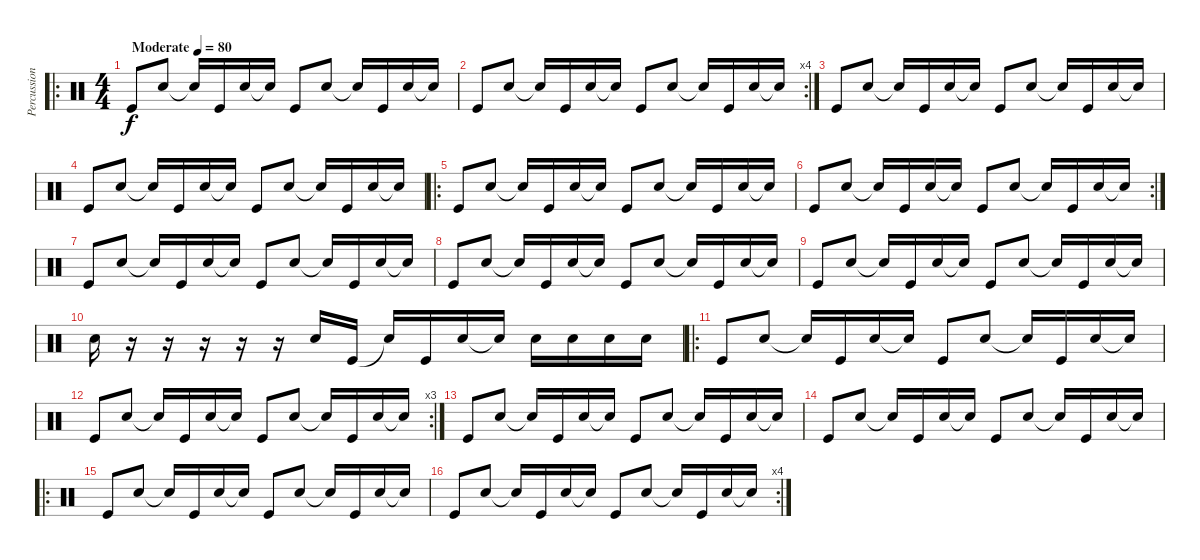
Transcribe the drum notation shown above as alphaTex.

\track ("Percussion" "Percussion") {instrument percussion}
\staff {score}
\articulation defaults
\ro
\ts (4 4)
\tempo (80 "Moderate")
\clef neutral
\ks c "Kick (hit)".8{dy f} "Snare (hit) 2".8 "Snare (hit)"{t}.16 "Kick (hit)".16 "Snare (hit) 2".16 "Snare (hit)"{t}.16 "Kick (hit)".8 "Snare (hit) 2".8 "Snare (hit)"{t}.16 "Kick (hit)".16 "Snare (hit) 2".16 "Snare (hit)"{t}.16
|
\rc 4 "Kick (hit)".8 "Snare (hit) 2".8 "Snare (hit)"{t}.16 "Kick (hit)".16 "Snare (hit) 2".16 "Snare (hit)"{t}.16 "Kick (hit)".8 "Snare (hit) 2".8 "Snare (hit)"{t}.16 "Kick (hit)".16 "Snare (hit) 2".16 "Snare (hit)"{t}.16
|
"Kick (hit)".8 "Snare (hit) 2".8 "Snare (hit)"{t}.16 "Kick (hit)".16 "Snare (hit) 2".16 "Snare (hit)"{t}.16 "Kick (hit)".8 "Snare (hit) 2".8 "Snare (hit)"{t}.16 "Kick (hit)".16 "Snare (hit) 2".16 "Snare (hit)"{t}.16 |
"Kick (hit)".8 "Snare (hit) 2".8 "Snare (hit)"{t}.16 "Kick (hit)".16 "Snare (hit) 2".16 "Snare (hit)"{t}.16 "Kick (hit)".8 "Snare (hit) 2".8 "Snare (hit)"{t}.16 "Kick (hit)".16 "Snare (hit) 2".16 "Snare (hit)"{t}.16 |
\ro "Kick (hit)".8 "Snare (hit) 2".8 "Snare (hit)"{t}.16 "Kick (hit)".16 "Snare (hit) 2".16 "Snare (hit)"{t}.16 "Kick (hit)".8 "Snare (hit) 2".8 "Snare (hit)"{t}.16 "Kick (hit)".16 "Snare (hit) 2".16 "Snare (hit)"{t}.16
|
\rc 2 "Kick (hit)".8 "Snare (hit) 2".8 "Snare (hit)"{t}.16 "Kick (hit)".16 "Snare (hit) 2".16 "Snare (hit)"{t}.16 "Kick (hit)".8 "Snare (hit) 2".8 "Snare (hit)"{t}.16 "Kick (hit)".16 "Snare (hit) 2".16 "Snare (hit)"{t}.16
|
"Kick (hit)".8 "Snare (hit) 2".8 "Snare (hit)"{t}.16 "Kick (hit)".16 "Snare (hit) 2".16 "Snare (hit)"{t}.16 "Kick (hit)".8 "Snare (hit) 2".8 "Snare (hit)"{t}.16 "Kick (hit)".16 "Snare (hit) 2".16 "Snare (hit)"{t}.16 |
"Kick (hit)".8 "Snare (hit) 2".8 "Snare (hit)"{t}.16 "Kick (hit)".16 "Snare (hit) 2".16 "Snare (hit)"{t}.16 "Kick (hit)".8 "Snare (hit) 2".8 "Snare (hit)"{t}.16 "Kick (hit)".16 "Snare (hit) 2".16 "Snare (hit)"{t}.16 |
"Kick (hit)".8 "Snare (hit) 2".8 "Snare (hit)"{t}.16 "Kick (hit)".16 "Snare (hit) 2".16 "Snare (hit)"{t}.16 "Kick (hit)".8 "Snare (hit) 2".8 "Snare (hit)"{t}.16 "Kick (hit)".16 "Snare (hit) 2".16 "Snare (hit)"{t}.16 |
"Snare (hit) 2".16 r.16 r.16 r.16 r.16 r.16 "Snare (hit) 2".16 "Kick (hit)".16 "Snare (hit)"{t}.16 "Kick (hit)".16 "Snare (hit) 2".16 "Snare (hit)"{t}.16 "Snare (hit) 2".16 "Snare (hit) 2".16 "Snare (hit) 2".16 "Snare (hit) 2".16 |
\ro "Kick (hit)".8 "Snare (hit) 2".8 "Snare (hit)"{t}.16 "Kick (hit)".16 "Snare (hit) 2".16 "Snare (hit)"{t}.16 "Kick (hit)".8 "Snare (hit) 2".8 "Snare (hit)"{t}.16 "Kick (hit)".16 "Snare (hit) 2".16 "Snare (hit)"{t}.16
|
\rc 3 "Kick (hit)".8 "Snare (hit) 2".8 "Snare (hit)"{t}.16 "Kick (hit)".16 "Snare (hit) 2".16 "Snare (hit)"{t}.16 "Kick (hit)".8 "Snare (hit) 2".8 "Snare (hit)"{t}.16 "Kick (hit)".16 "Snare (hit) 2".16 "Snare (hit)"{t}.16
|
"Kick (hit)".8 "Snare (hit) 2".8 "Snare (hit)"{t}.16 "Kick (hit)".16 "Snare (hit) 2".16 "Snare (hit)"{t}.16 "Kick (hit)".8 "Snare (hit) 2".8 "Snare (hit)"{t}.16 "Kick (hit)".16 "Snare (hit) 2".16 "Snare (hit)"{t}.16 |
"Kick (hit)".8 "Snare (hit) 2".8 "Snare (hit)"{t}.16 "Kick (hit)".16 "Snare (hit) 2".16 "Snare (hit)"{t}.16 "Kick (hit)".8 "Snare (hit) 2".8 "Snare (hit)"{t}.16 "Kick (hit)".16 "Snare (hit) 2".16 "Snare (hit)"{t}.16 |
\ro "Kick (hit)".8 "Snare (hit) 2".8 "Snare (hit)"{t}.16 "Kick (hit)".16 "Snare (hit) 2".16 "Snare (hit)"{t}.16 "Kick (hit)".8 "Snare (hit) 2".8 "Snare (hit)"{t}.16 "Kick (hit)".16 "Snare (hit) 2".16 "Snare (hit)"{t}.16
|
\rc 4 "Kick (hit)".8 "Snare (hit) 2".8 "Snare (hit)"{t}.16 "Kick (hit)".16 "Snare (hit) 2".16 "Snare (hit)"{t}.16 "Kick (hit)".8 "Snare (hit) 2".8 "Snare (hit)"{t}.16 "Kick (hit)".16 "Snare (hit) 2".16 "Snare (hit)"{t}.16
